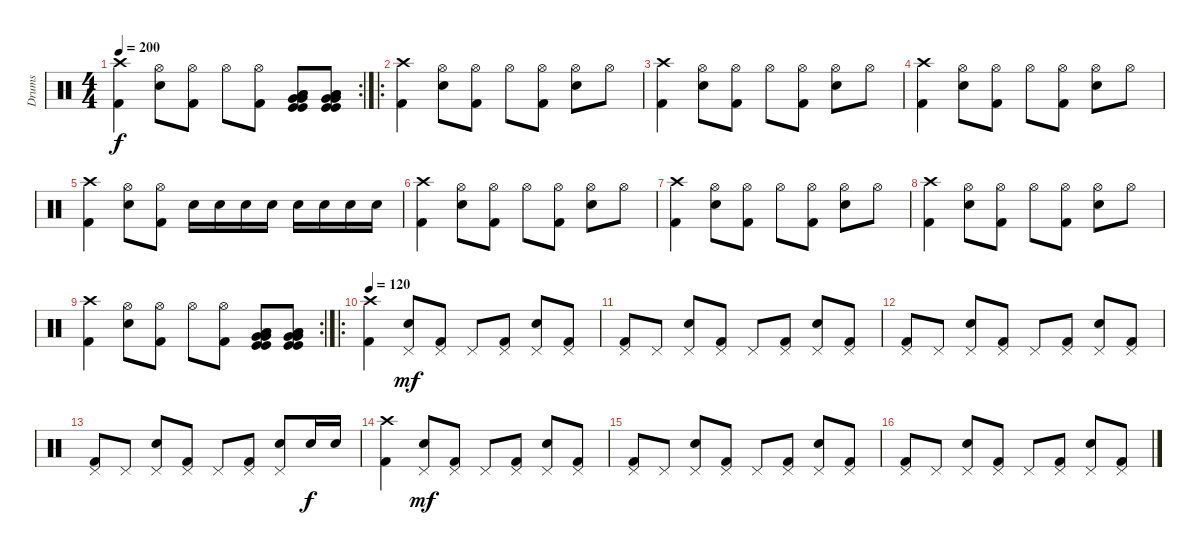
\track ("Drums" "Drums") {instrument percussion}
\staff {score}
\articulation defaults
\rc 2
\ts (4 4)
\tempo 200
\clef neutral
\ks c
("Crash high (hit)" "Kick (hit) 2").4{dy f} ("Hi-Hat (open)" "Electric Snare (hit)").8 ("Hi-Hat (open)" "Kick (hit) 2").8 "Hi-Hat (open)".8 ("Hi-Hat (open)" "Kick (hit) 2").8 ("Kick (hit)" "Kick (hit)" "Low Tom (hit)" "Very Low Tom (hit)" "Very Low Tom (hit)" "Low Tom (hit)").8 ("Kick (hit)" "Kick (hit)" "Low Tom (hit)" "Very Low Tom (hit)" "Very Low Tom (hit)" "Low Tom (hit)").8 |
\ro
("Crash high (hit)" "Kick (hit) 2").4 ("Hi-Hat (open)" "Electric Snare (hit)").8 ("Hi-Hat (open)" "Kick (hit) 2").8 "Hi-Hat (open)".8 ("Hi-Hat (open)" "Kick (hit) 2").8 ("Hi-Hat (open)" "Electric Snare (hit)").8 "Hi-Hat (open)".8 |
("Crash high (hit)" "Kick (hit) 2").4 ("Hi-Hat (open)" "Electric Snare (hit)").8 ("Hi-Hat (open)" "Kick (hit) 2").8 "Hi-Hat (open)".8 ("Hi-Hat (open)" "Kick (hit) 2").8 ("Hi-Hat (open)" "Electric Snare (hit)").8 "Hi-Hat (open)".8 |
("Crash high (hit)" "Kick (hit) 2").4 ("Hi-Hat (open)" "Electric Snare (hit)").8 ("Hi-Hat (open)" "Kick (hit) 2").8 "Hi-Hat (open)".8 ("Hi-Hat (open)" "Kick (hit) 2").8 ("Hi-Hat (open)" "Electric Snare (hit)").8 "Hi-Hat (open)".8 |
("Crash high (hit)" "Kick (hit) 2").4 ("Hi-Hat (open)" "Electric Snare (hit)").8 ("Hi-Hat (open)" "Kick (hit) 2").8 "Electric Snare (hit)".16 "Electric Snare (hit)".16 "Electric Snare (hit)".16 "Electric Snare (hit)".16 "Electric Snare (hit)".16 "Electric Snare (hit)".16 "Electric Snare (hit)".16 "Electric Snare (hit)".16 |
("Crash high (hit)" "Kick (hit) 2").4 ("Hi-Hat (open)" "Electric Snare (hit)").8 ("Hi-Hat (open)" "Kick (hit) 2").8 "Hi-Hat (open)".8 ("Hi-Hat (open)" "Kick (hit) 2").8 ("Hi-Hat (open)" "Electric Snare (hit)").8 "Hi-Hat (open)".8 |
("Crash high (hit)" "Kick (hit) 2").4 ("Hi-Hat (open)" "Electric Snare (hit)").8 ("Hi-Hat (open)" "Kick (hit) 2").8 "Hi-Hat (open)".8 ("Hi-Hat (open)" "Kick (hit) 2").8 ("Hi-Hat (open)" "Electric Snare (hit)").8 "Hi-Hat (open)".8 |
("Crash high (hit)" "Kick (hit) 2").4 ("Hi-Hat (open)" "Electric Snare (hit)").8 ("Hi-Hat (open)" "Kick (hit) 2").8 "Hi-Hat (open)".8 ("Hi-Hat (open)" "Kick (hit) 2").8 ("Hi-Hat (open)" "Electric Snare (hit)").8 "Hi-Hat (open)".8 |
\rc 2
("Crash high (hit)" "Kick (hit) 2").4 ("Hi-Hat (open)" "Electric Snare (hit)").8 ("Hi-Hat (open)" "Kick (hit) 2").8 "Hi-Hat (open)".8 ("Hi-Hat (open)" "Kick (hit) 2").8 ("Kick (hit)" "Kick (hit)" "Low Tom (hit)" "Very Low Tom (hit)" "Very Low Tom (hit)" "Low Tom (hit)").8 ("Kick (hit)" "Kick (hit)" "Low Tom (hit)" "Very Low Tom (hit)" "Very Low Tom (hit)" "Low Tom (hit)").8 |
\ro
\tempo 120
("Crash high (hit)" "Kick (hit) 2").4 ("Pedal Hi-Hat (hit)" "Electric Snare (hit)").8{dy mf} ("Pedal Hi-Hat (hit)" "Kick (hit) 2").8 "Pedal Hi-Hat (hit)".8 ("Pedal Hi-Hat (hit)" "Kick (hit) 2").8 ("Pedal Hi-Hat (hit)" "Electric Snare (hit)").8 ("Pedal Hi-Hat (hit)" "Kick (hit) 2").8 |
("Pedal Hi-Hat (hit)" "Kick (hit) 2").8 "Pedal Hi-Hat (hit)".8 ("Pedal Hi-Hat (hit)" "Electric Snare (hit)").8 ("Pedal Hi-Hat (hit)" "Kick (hit) 2").8 "Pedal Hi-Hat (hit)".8 ("Pedal Hi-Hat (hit)" "Kick (hit) 2").8 ("Pedal Hi-Hat (hit)" "Electric Snare (hit)").8 ("Pedal Hi-Hat (hit)" "Kick (hit) 2").8 |
("Pedal Hi-Hat (hit)" "Kick (hit) 2").8 "Pedal Hi-Hat (hit)".8 ("Pedal Hi-Hat (hit)" "Electric Snare (hit)").8 ("Pedal Hi-Hat (hit)" "Kick (hit) 2").8 "Pedal Hi-Hat (hit)".8 ("Pedal Hi-Hat (hit)" "Kick (hit) 2").8 ("Pedal Hi-Hat (hit)" "Electric Snare (hit)").8 ("Pedal Hi-Hat (hit)" "Kick (hit) 2").8 |
("Pedal Hi-Hat (hit)" "Kick (hit) 2").8 "Pedal Hi-Hat (hit)".8 ("Pedal Hi-Hat (hit)" "Electric Snare (hit)").8 ("Pedal Hi-Hat (hit)" "Kick (hit) 2").8 "Pedal Hi-Hat (hit)".8 ("Pedal Hi-Hat (hit)" "Kick (hit) 2").8 ("Pedal Hi-Hat (hit)" "Electric Snare (hit)").8 "Electric Snare (hit)".16{dy f} "Electric Snare (hit)".16 |
("Crash high (hit)" "Kick (hit) 2").4 ("Pedal Hi-Hat (hit)" "Electric Snare (hit)").8{dy mf} ("Pedal Hi-Hat (hit)" "Kick (hit) 2").8 "Pedal Hi-Hat (hit)".8 ("Pedal Hi-Hat (hit)" "Kick (hit) 2").8 ("Pedal Hi-Hat (hit)" "Electric Snare (hit)").8 ("Pedal Hi-Hat (hit)" "Kick (hit) 2").8 |
("Pedal Hi-Hat (hit)" "Kick (hit) 2").8 "Pedal Hi-Hat (hit)".8 ("Pedal Hi-Hat (hit)" "Electric Snare (hit)").8 ("Pedal Hi-Hat (hit)" "Kick (hit) 2").8 "Pedal Hi-Hat (hit)".8 ("Pedal Hi-Hat (hit)" "Kick (hit) 2").8 ("Pedal Hi-Hat (hit)" "Electric Snare (hit)").8 ("Pedal Hi-Hat (hit)" "Kick (hit) 2").8 |
("Pedal Hi-Hat (hit)" "Kick (hit) 2").8 "Pedal Hi-Hat (hit)".8 ("Pedal Hi-Hat (hit)" "Electric Snare (hit)").8 ("Pedal Hi-Hat (hit)" "Kick (hit) 2").8 "Pedal Hi-Hat (hit)".8 ("Pedal Hi-Hat (hit)" "Kick (hit) 2").8 ("Pedal Hi-Hat (hit)" "Electric Snare (hit)").8 ("Pedal Hi-Hat (hit)" "Kick (hit) 2").8
